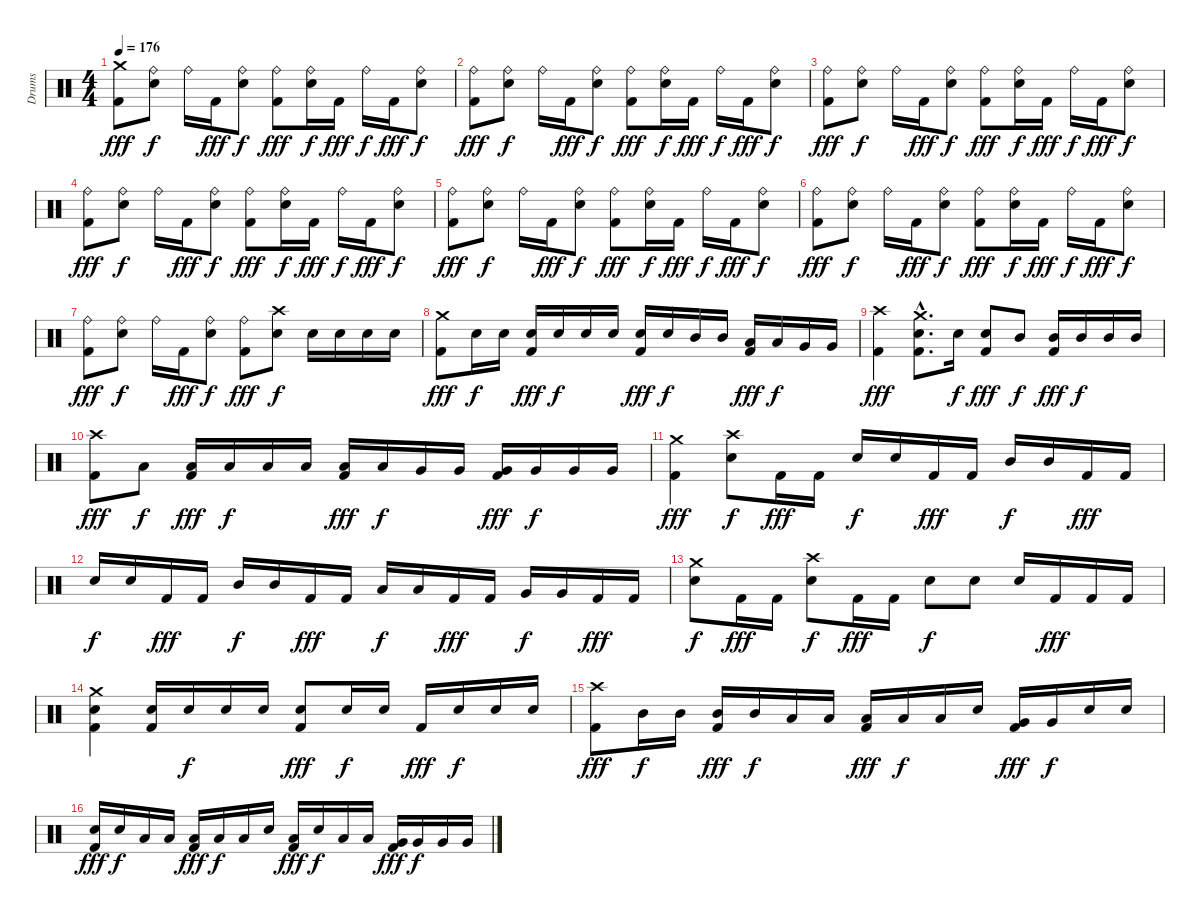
\track ("Drums" "Drums") {instrument percussion}
\staff {score}
\articulation defaults
\ts (4 4)
\tempo 176
\clef neutral
\ks c
("Crash medium (hit)" "Kick (hit) 2").8{dy fff} ("Ride (bell)" "Snare (hit) 2").8{dy f} "Ride (bell)".16 "Kick (hit) 2".16{dy fff} ("Ride (bell)" "Snare (hit) 2").8{dy f} ("Ride (bell)" "Kick (hit) 2").8{dy fff} ("Ride (bell)" "Snare (hit) 2").16{dy f} "Kick (hit) 2".16{dy fff} "Ride (bell)".16{dy f} "Kick (hit) 2".16{dy fff} ("Ride (bell)" "Snare (hit) 2").8{dy f} |
("Ride (bell)" "Kick (hit) 2").8{dy fff} ("Ride (bell)" "Snare (hit) 2").8{dy f} "Ride (bell)".16 "Kick (hit) 2".16{dy fff} ("Ride (bell)" "Snare (hit) 2").8{dy f} ("Ride (bell)" "Kick (hit) 2").8{dy fff} ("Ride (bell)" "Snare (hit) 2").16{dy f} "Kick (hit) 2".16{dy fff} "Ride (bell)".16{dy f} "Kick (hit) 2".16{dy fff} ("Ride (bell)" "Snare (hit) 2").8{dy f} |
("Ride (bell)" "Kick (hit) 2").8{dy fff} ("Ride (bell)" "Snare (hit) 2").8{dy f} "Ride (bell)".16 "Kick (hit) 2".16{dy fff} ("Ride (bell)" "Snare (hit) 2").8{dy f} ("Ride (bell)" "Kick (hit) 2").8{dy fff} ("Ride (bell)" "Snare (hit) 2").16{dy f} "Kick (hit) 2".16{dy fff} "Ride (bell)".16{dy f} "Kick (hit) 2".16{dy fff} ("Ride (bell)" "Snare (hit) 2").8{dy f} |
("Ride (bell)" "Kick (hit) 2").8{dy fff} ("Ride (bell)" "Snare (hit) 2").8{dy f} "Ride (bell)".16 "Kick (hit) 2".16{dy fff} ("Ride (bell)" "Snare (hit) 2").8{dy f} ("Ride (bell)" "Kick (hit) 2").8{dy fff} ("Ride (bell)" "Snare (hit) 2").16{dy f} "Kick (hit) 2".16{dy fff} "Ride (bell)".16{dy f} "Kick (hit) 2".16{dy fff} ("Ride (bell)" "Snare (hit) 2").8{dy f} |
("Ride (bell)" "Kick (hit) 2").8{dy fff} ("Ride (bell)" "Snare (hit) 2").8{dy f} "Ride (bell)".16 "Kick (hit) 2".16{dy fff} ("Ride (bell)" "Snare (hit) 2").8{dy f} ("Ride (bell)" "Kick (hit) 2").8{dy fff} ("Ride (bell)" "Snare (hit) 2").16{dy f} "Kick (hit) 2".16{dy fff} "Ride (bell)".16{dy f} "Kick (hit) 2".16{dy fff} ("Ride (bell)" "Snare (hit) 2").8{dy f} |
("Ride (bell)" "Kick (hit) 2").8{dy fff} ("Ride (bell)" "Snare (hit) 2").8{dy f} "Ride (bell)".16 "Kick (hit) 2".16{dy fff} ("Ride (bell)" "Snare (hit) 2").8{dy f} ("Ride (bell)" "Kick (hit) 2").8{dy fff} ("Ride (bell)" "Snare (hit) 2").16{dy f} "Kick (hit) 2".16{dy fff} "Ride (bell)".16{dy f} "Kick (hit) 2".16{dy fff} ("Ride (bell)" "Snare (hit) 2").8{dy f} |
("Ride (bell)" "Kick (hit) 2").8{dy fff} ("Ride (bell)" "Snare (hit) 2").8{dy f} "Ride (bell)".16 "Kick (hit) 2".16{dy fff} ("Ride (bell)" "Snare (hit) 2").8{dy f} ("Ride (bell)" "Kick (hit) 2").8{dy fff} ("Crash high (hit)" "Snare (hit) 2").8{dy f} "Snare (hit) 2".16 "Snare (hit) 2".16 "Snare (hit) 2".16 "Snare (hit) 2".16 |
("Crash medium (hit)" "Kick (hit) 2").8{dy fff} "Snare (hit) 2".16{dy f} "Snare (hit) 2".16 ("Snare (hit) 2" "Kick (hit) 2").16{dy fff} "Snare (hit) 2".16{dy f} "Snare (hit) 2".16 "Snare (hit) 2".16 ("Snare (hit) 2" "Kick (hit) 2").16{dy fff} "Snare (hit) 2".16{dy f} "Mid Tom (hit)".16 "Mid Tom (hit)".16 ("Low Tom (hit)" "Kick (hit) 2").16{dy fff} "Low Tom (hit)".16{dy f} "Very Low Tom (hit)".16 "Very Low Tom (hit)".16 |
("Crash high (hit)" "Kick (hit) 2").4{dy fff} ("Crash medium (hit)"{hac} "Snare (hit) 2"{hac} "Kick (hit) 2"{hac}).8{d} "Snare (hit) 2".16{dy f} ("Snare (hit) 2" "Kick (hit) 2").8{dy fff} "Mid Tom (hit)".8{dy f} ("Mid Tom (hit)" "Kick (hit) 2").16{dy fff} "Mid Tom (hit)".16{dy f} "Mid Tom (hit)".16 "Mid Tom (hit)".16 |
("Crash high (hit)" "Kick (hit) 2").8{dy fff} "Low Tom (hit)".8{dy f} ("Low Tom (hit)" "Kick (hit) 2").16{dy fff} "Low Tom (hit)".16{dy f} "Low Tom (hit)".16 "Low Tom (hit)".16 ("Low Tom (hit)" "Kick (hit) 2").16{dy fff} "Low Tom (hit)".16{dy f} "Very Low Tom (hit)".16 "Very Low Tom (hit)".16 ("Very Low Tom (hit)" "Kick (hit) 2").16{dy fff} "Very Low Tom (hit)".16{dy f} "Very Low Tom (hit)".16 "Very Low Tom (hit)".16 |
("Crash medium (hit)" "Kick (hit) 2").4{dy fff} ("Crash high (hit)" "Snare (hit) 2").8{dy f} "Kick (hit) 2".16{dy fff} "Kick (hit) 2".16 "Snare (hit) 2".16{dy f} "Snare (hit) 2".16 "Kick (hit) 2".16{dy fff} "Kick (hit) 2".16 "Mid Tom (hit)".16{dy f} "Mid Tom (hit)".16 "Kick (hit) 2".16{dy fff} "Kick (hit) 2".16 |
"Snare (hit) 2".16{dy f} "Snare (hit) 2".16 "Kick (hit) 2".16{dy fff} "Kick (hit) 2".16 "Mid Tom (hit)".16{dy f} "Mid Tom (hit)".16 "Kick (hit) 2".16{dy fff} "Kick (hit) 2".16 "Low Tom (hit)".16{dy f} "Low Tom (hit)".16 "Kick (hit) 2".16{dy fff} "Kick (hit) 2".16 "Very Low Tom (hit)".16{dy f} "Very Low Tom (hit)".16 "Kick (hit) 2".16{dy fff} "Kick (hit) 2".16 |
("Crash medium (hit)" "Snare (hit) 2").8{dy f} "Kick (hit) 2".16{dy fff} "Kick (hit) 2".16 ("Crash high (hit)" "Snare (hit) 2").8{dy f} "Kick (hit) 2".16{dy fff} "Kick (hit) 2".16 "Snare (hit) 2".8{dy f} "Snare (hit) 2".8 "Snare (hit) 2".16 "Kick (hit) 2".16{dy fff} "Kick (hit) 2".16 "Kick (hit) 2".16 |
("Crash medium (hit)" "Snare (hit) 2" "Kick (hit) 2").4 ("Snare (hit) 2" "Kick (hit) 2").16 "Snare (hit) 2".16{dy f} "Snare (hit) 2".16 "Snare (hit) 2".16 ("Snare (hit) 2" "Kick (hit) 2").8{dy fff} "Snare (hit) 2".16{dy f} "Snare (hit) 2".16 "Kick (hit) 2".16{dy fff} "Snare (hit) 2".16{dy f} "Snare (hit) 2".16 "Snare (hit) 2".16 |
("Crash high (hit)" "Kick (hit) 2").8{dy fff} "Mid Tom (hit)".16{dy f} "Mid Tom (hit)".16 ("Mid Tom (hit)" "Kick (hit) 2").16{dy fff} "Mid Tom (hit)".16{dy f} "Low Tom (hit)".16 "Low Tom (hit)".16 ("Low Tom (hit)" "Kick (hit) 2").16{dy fff} "Low Tom (hit)".16{dy f} "Low Tom (hit)".16 "Snare (hit) 2".16 ("Very Low Tom (hit)" "Kick (hit) 2").16{dy fff} "Very Low Tom (hit)".16{dy f} "Snare (hit) 2".16 "Snare (hit) 2".16 |
("Snare (hit) 2" "Kick (hit) 2").16{dy fff} "Snare (hit) 2".16{dy f} "Low Tom (hit)".16 "Low Tom (hit)".16 ("Low Tom (hit)" "Kick (hit) 2").16{dy fff} "Low Tom (hit)".16{dy f} "Low Tom (hit)".16 "Snare (hit) 2".16 ("Low Tom (hit)" "Kick (hit) 2").16{dy fff} "Snare (hit) 2".16{dy f} "Low Tom (hit)".16 "Low Tom (hit)".16 ("Very Low Tom (hit)" "Kick (hit) 2").16{dy fff} "Very Low Tom (hit)".16{dy f} "Very Low Tom (hit)".16 "Very Low Tom (hit)".16
